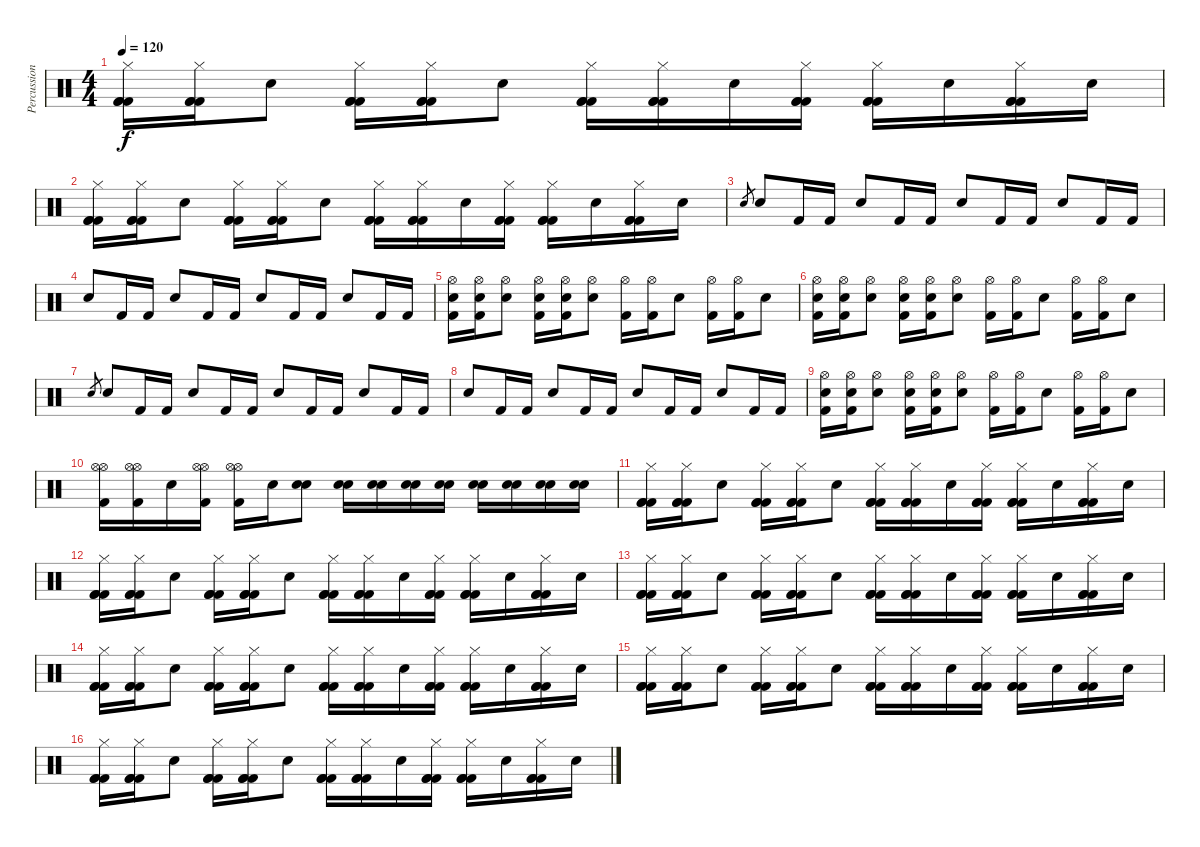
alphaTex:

\track ("Percussion" "Percussion") {instrument percussion}
\staff {score}
\articulation defaults
\ts (4 4)
\tempo 120
\clef neutral
\ks c
("Kick (hit) 2" "Kick (hit) 2" "Hi-Hat (closed)" "Kick (hit) 2").16{dy f} ("Kick (hit) 2" "Kick (hit) 2" "Hi-Hat (closed)" "Kick (hit) 2").16 "Snare (hit) 2".8 ("Kick (hit) 2" "Kick (hit) 2" "Hi-Hat (closed)" "Kick (hit) 2").16 ("Kick (hit) 2" "Kick (hit) 2" "Hi-Hat (closed)" "Kick (hit) 2").16 "Snare (hit) 2".8 ("Kick (hit) 2" "Kick (hit) 2" "Hi-Hat (closed)" "Kick (hit) 2").16 ("Kick (hit) 2" "Kick (hit) 2" "Hi-Hat (closed)" "Kick (hit) 2").16 "Snare (hit) 2".16 ("Kick (hit) 2" "Kick (hit) 2" "Hi-Hat (closed)" "Kick (hit) 2").16 ("Kick (hit) 2" "Kick (hit) 2" "Hi-Hat (closed)" "Kick (hit) 2").16 "Snare (hit) 2".16 ("Kick (hit) 2" "Kick (hit) 2" "Hi-Hat (closed)" "Kick (hit) 2").16 "Snare (hit) 2".16 |
("Kick (hit) 2" "Kick (hit) 2" "Hi-Hat (closed)" "Kick (hit) 2").16 ("Kick (hit) 2" "Kick (hit) 2" "Hi-Hat (closed)" "Kick (hit) 2").16 "Snare (hit) 2".8 ("Kick (hit) 2" "Kick (hit) 2" "Hi-Hat (closed)" "Kick (hit) 2").16 ("Kick (hit) 2" "Kick (hit) 2" "Hi-Hat (closed)" "Kick (hit) 2").16 "Snare (hit) 2".8 ("Kick (hit) 2" "Kick (hit) 2" "Hi-Hat (closed)" "Kick (hit) 2").16 ("Kick (hit) 2" "Kick (hit) 2" "Hi-Hat (closed)" "Kick (hit) 2").16 "Snare (hit) 2".16 ("Kick (hit) 2" "Kick (hit) 2" "Hi-Hat (closed)" "Kick (hit) 2").16 ("Kick (hit) 2" "Kick (hit) 2" "Hi-Hat (closed)" "Kick (hit) 2").16 "Snare (hit) 2".16 ("Kick (hit) 2" "Kick (hit) 2" "Hi-Hat (closed)" "Kick (hit) 2").16 "Snare (hit) 2".16 |
"Snare (hit) 2".8{gr} "Snare (hit) 2".8 "Kick (hit) 2".16 "Kick (hit) 2".16 "Snare (hit) 2".8 "Kick (hit) 2".16 "Kick (hit) 2".16 "Snare (hit) 2".8 "Kick (hit) 2".16 "Kick (hit) 2".16 "Snare (hit) 2".8 "Kick (hit) 2".16 "Kick (hit) 2".16 |
"Snare (hit) 2".8 "Kick (hit) 2".16 "Kick (hit) 2".16 "Snare (hit) 2".8 "Kick (hit) 2".16 "Kick (hit) 2".16 "Snare (hit) 2".8 "Kick (hit) 2".16 "Kick (hit) 2".16 "Snare (hit) 2".8 "Kick (hit) 2".16 "Kick (hit) 2".16 |
("Hi-Hat (open)" "Snare (hit) 2" "Kick (hit) 2").16 ("Hi-Hat (open)" "Snare (hit) 2" "Kick (hit) 2").16 ("Hi-Hat (open)" "Snare (hit) 2").8 ("Hi-Hat (open)" "Snare (hit) 2" "Kick (hit) 2").16 ("Hi-Hat (open)" "Snare (hit) 2" "Kick (hit) 2").16 ("Hi-Hat (open)" "Snare (hit) 2").8 ("Hi-Hat (open)" "Kick (hit) 2").16 ("Hi-Hat (open)" "Kick (hit) 2").16 "Snare (hit) 2".8 ("Hi-Hat (open)" "Kick (hit) 2").16 ("Hi-Hat (open)" "Kick (hit) 2").16 "Snare (hit) 2".8 |
("Hi-Hat (open)" "Snare (hit) 2" "Kick (hit) 2").16 ("Hi-Hat (open)" "Snare (hit) 2" "Kick (hit) 2").16 ("Hi-Hat (open)" "Snare (hit) 2").8 ("Hi-Hat (open)" "Snare (hit) 2" "Kick (hit) 2").16 ("Hi-Hat (open)" "Snare (hit) 2" "Kick (hit) 2").16 ("Hi-Hat (open)" "Snare (hit) 2").8 ("Hi-Hat (open)" "Kick (hit) 2").16 ("Hi-Hat (open)" "Kick (hit) 2").16 "Snare (hit) 2".8 ("Hi-Hat (open)" "Kick (hit) 2").16 ("Hi-Hat (open)" "Kick (hit) 2").16 "Snare (hit) 2".8 |
"Snare (hit) 2".8{gr} "Snare (hit) 2".8 "Kick (hit) 2".16 "Kick (hit) 2".16 "Snare (hit) 2".8 "Kick (hit) 2".16 "Kick (hit) 2".16 "Snare (hit) 2".8 "Kick (hit) 2".16 "Kick (hit) 2".16 "Snare (hit) 2".8 "Kick (hit) 2".16 "Kick (hit) 2".16 |
"Snare (hit) 2".8 "Kick (hit) 2".16 "Kick (hit) 2".16 "Snare (hit) 2".8 "Kick (hit) 2".16 "Kick (hit) 2".16 "Snare (hit) 2".8 "Kick (hit) 2".16 "Kick (hit) 2".16 "Snare (hit) 2".8 "Kick (hit) 2".16 "Kick (hit) 2".16 |
("Hi-Hat (open)" "Snare (hit) 2" "Kick (hit) 2").16 ("Hi-Hat (open)" "Snare (hit) 2" "Kick (hit) 2").16 ("Hi-Hat (open)" "Snare (hit) 2").8 ("Hi-Hat (open)" "Snare (hit) 2" "Kick (hit) 2").16 ("Hi-Hat (open)" "Snare (hit) 2" "Kick (hit) 2").16 ("Hi-Hat (open)" "Snare (hit) 2").8 ("Hi-Hat (open)" "Kick (hit) 2").16 ("Hi-Hat (open)" "Kick (hit) 2").16 "Snare (hit) 2".8 ("Hi-Hat (open)" "Kick (hit) 2").16 ("Hi-Hat (open)" "Kick (hit) 2").16 "Snare (hit) 2".8 |
("Hi-Hat (open)" "Hi-Hat (open)" "Kick (hit) 2").16 ("Hi-Hat (open)" "Hi-Hat (open)" "Kick (hit) 2").16 "Snare (hit) 2".16 ("Hi-Hat (open)" "Hi-Hat (open)" "Kick (hit) 2").16 ("Hi-Hat (open)" "Hi-Hat (open)" "Kick (hit) 2").16 "Snare (hit) 2".16 ("Snare (hit) 2" "Snare (hit) 2").8 ("Snare (hit) 2" "Snare (hit) 2").16 ("Snare (hit) 2" "Snare (hit) 2").16 ("Snare (hit) 2" "Snare (hit) 2").16 ("Snare (hit) 2" "Snare (hit) 2").16 ("Snare (hit) 2" "Snare (hit) 2").16 ("Snare (hit) 2" "Snare (hit) 2").16 ("Snare (hit) 2" "Snare (hit) 2").16 ("Snare (hit) 2" "Snare (hit) 2").16 |
("Kick (hit) 2" "Kick (hit) 2" "Hi-Hat (closed)" "Kick (hit) 2").16 ("Kick (hit) 2" "Kick (hit) 2" "Hi-Hat (closed)" "Kick (hit) 2").16 "Snare (hit) 2".8 ("Kick (hit) 2" "Kick (hit) 2" "Hi-Hat (closed)" "Kick (hit) 2").16 ("Kick (hit) 2" "Kick (hit) 2" "Hi-Hat (closed)" "Kick (hit) 2").16 "Snare (hit) 2".8 ("Kick (hit) 2" "Kick (hit) 2" "Hi-Hat (closed)" "Kick (hit) 2").16 ("Kick (hit) 2" "Kick (hit) 2" "Hi-Hat (closed)" "Kick (hit) 2").16 "Snare (hit) 2".16 ("Kick (hit) 2" "Kick (hit) 2" "Hi-Hat (closed)" "Kick (hit) 2").16 ("Kick (hit) 2" "Kick (hit) 2" "Hi-Hat (closed)" "Kick (hit) 2").16 "Snare (hit) 2".16 ("Kick (hit) 2" "Kick (hit) 2" "Hi-Hat (closed)" "Kick (hit) 2").16 "Snare (hit) 2".16 |
("Kick (hit) 2" "Kick (hit) 2" "Hi-Hat (closed)" "Kick (hit) 2").16 ("Kick (hit) 2" "Kick (hit) 2" "Hi-Hat (closed)" "Kick (hit) 2").16 "Snare (hit) 2".8 ("Kick (hit) 2" "Kick (hit) 2" "Hi-Hat (closed)" "Kick (hit) 2").16 ("Kick (hit) 2" "Kick (hit) 2" "Hi-Hat (closed)" "Kick (hit) 2").16 "Snare (hit) 2".8 ("Kick (hit) 2" "Kick (hit) 2" "Hi-Hat (closed)" "Kick (hit) 2").16 ("Kick (hit) 2" "Kick (hit) 2" "Hi-Hat (closed)" "Kick (hit) 2").16 "Snare (hit) 2".16 ("Kick (hit) 2" "Kick (hit) 2" "Hi-Hat (closed)" "Kick (hit) 2").16 ("Kick (hit) 2" "Kick (hit) 2" "Hi-Hat (closed)" "Kick (hit) 2").16 "Snare (hit) 2".16 ("Kick (hit) 2" "Kick (hit) 2" "Hi-Hat (closed)" "Kick (hit) 2").16 "Snare (hit) 2".16 |
("Kick (hit) 2" "Kick (hit) 2" "Hi-Hat (closed)" "Kick (hit) 2").16 ("Kick (hit) 2" "Kick (hit) 2" "Hi-Hat (closed)" "Kick (hit) 2").16 "Snare (hit) 2".8 ("Kick (hit) 2" "Kick (hit) 2" "Hi-Hat (closed)" "Kick (hit) 2").16 ("Kick (hit) 2" "Kick (hit) 2" "Hi-Hat (closed)" "Kick (hit) 2").16 "Snare (hit) 2".8 ("Kick (hit) 2" "Kick (hit) 2" "Hi-Hat (closed)" "Kick (hit) 2").16 ("Kick (hit) 2" "Kick (hit) 2" "Hi-Hat (closed)" "Kick (hit) 2").16 "Snare (hit) 2".16 ("Kick (hit) 2" "Kick (hit) 2" "Hi-Hat (closed)" "Kick (hit) 2").16 ("Kick (hit) 2" "Kick (hit) 2" "Hi-Hat (closed)" "Kick (hit) 2").16 "Snare (hit) 2".16 ("Kick (hit) 2" "Kick (hit) 2" "Hi-Hat (closed)" "Kick (hit) 2").16 "Snare (hit) 2".16 |
("Kick (hit) 2" "Kick (hit) 2" "Hi-Hat (closed)" "Kick (hit) 2").16 ("Kick (hit) 2" "Kick (hit) 2" "Hi-Hat (closed)" "Kick (hit) 2").16 "Snare (hit) 2".8 ("Kick (hit) 2" "Kick (hit) 2" "Hi-Hat (closed)" "Kick (hit) 2").16 ("Kick (hit) 2" "Kick (hit) 2" "Hi-Hat (closed)" "Kick (hit) 2").16 "Snare (hit) 2".8 ("Kick (hit) 2" "Kick (hit) 2" "Hi-Hat (closed)" "Kick (hit) 2").16 ("Kick (hit) 2" "Kick (hit) 2" "Hi-Hat (closed)" "Kick (hit) 2").16 "Snare (hit) 2".16 ("Kick (hit) 2" "Kick (hit) 2" "Hi-Hat (closed)" "Kick (hit) 2").16 ("Kick (hit) 2" "Kick (hit) 2" "Hi-Hat (closed)" "Kick (hit) 2").16 "Snare (hit) 2".16 ("Kick (hit) 2" "Kick (hit) 2" "Hi-Hat (closed)" "Kick (hit) 2").16 "Snare (hit) 2".16 |
("Kick (hit) 2" "Kick (hit) 2" "Hi-Hat (closed)" "Kick (hit) 2").16 ("Kick (hit) 2" "Kick (hit) 2" "Hi-Hat (closed)" "Kick (hit) 2").16 "Snare (hit) 2".8 ("Kick (hit) 2" "Kick (hit) 2" "Hi-Hat (closed)" "Kick (hit) 2").16 ("Kick (hit) 2" "Kick (hit) 2" "Hi-Hat (closed)" "Kick (hit) 2").16 "Snare (hit) 2".8 ("Kick (hit) 2" "Kick (hit) 2" "Hi-Hat (closed)" "Kick (hit) 2").16 ("Kick (hit) 2" "Kick (hit) 2" "Hi-Hat (closed)" "Kick (hit) 2").16 "Snare (hit) 2".16 ("Kick (hit) 2" "Kick (hit) 2" "Hi-Hat (closed)" "Kick (hit) 2").16 ("Kick (hit) 2" "Kick (hit) 2" "Hi-Hat (closed)" "Kick (hit) 2").16 "Snare (hit) 2".16 ("Kick (hit) 2" "Kick (hit) 2" "Hi-Hat (closed)" "Kick (hit) 2").16 "Snare (hit) 2".16 |
("Kick (hit) 2" "Kick (hit) 2" "Hi-Hat (closed)" "Kick (hit) 2").16 ("Kick (hit) 2" "Kick (hit) 2" "Hi-Hat (closed)" "Kick (hit) 2").16 "Snare (hit) 2".8 ("Kick (hit) 2" "Kick (hit) 2" "Hi-Hat (closed)" "Kick (hit) 2").16 ("Kick (hit) 2" "Kick (hit) 2" "Hi-Hat (closed)" "Kick (hit) 2").16 "Snare (hit) 2".8 ("Kick (hit) 2" "Kick (hit) 2" "Hi-Hat (closed)" "Kick (hit) 2").16 ("Kick (hit) 2" "Kick (hit) 2" "Hi-Hat (closed)" "Kick (hit) 2").16 "Snare (hit) 2".16 ("Kick (hit) 2" "Kick (hit) 2" "Hi-Hat (closed)" "Kick (hit) 2").16 ("Kick (hit) 2" "Kick (hit) 2" "Hi-Hat (closed)" "Kick (hit) 2").16 "Snare (hit) 2".16 ("Kick (hit) 2" "Kick (hit) 2" "Hi-Hat (closed)" "Kick (hit) 2").16 "Snare (hit) 2".16
